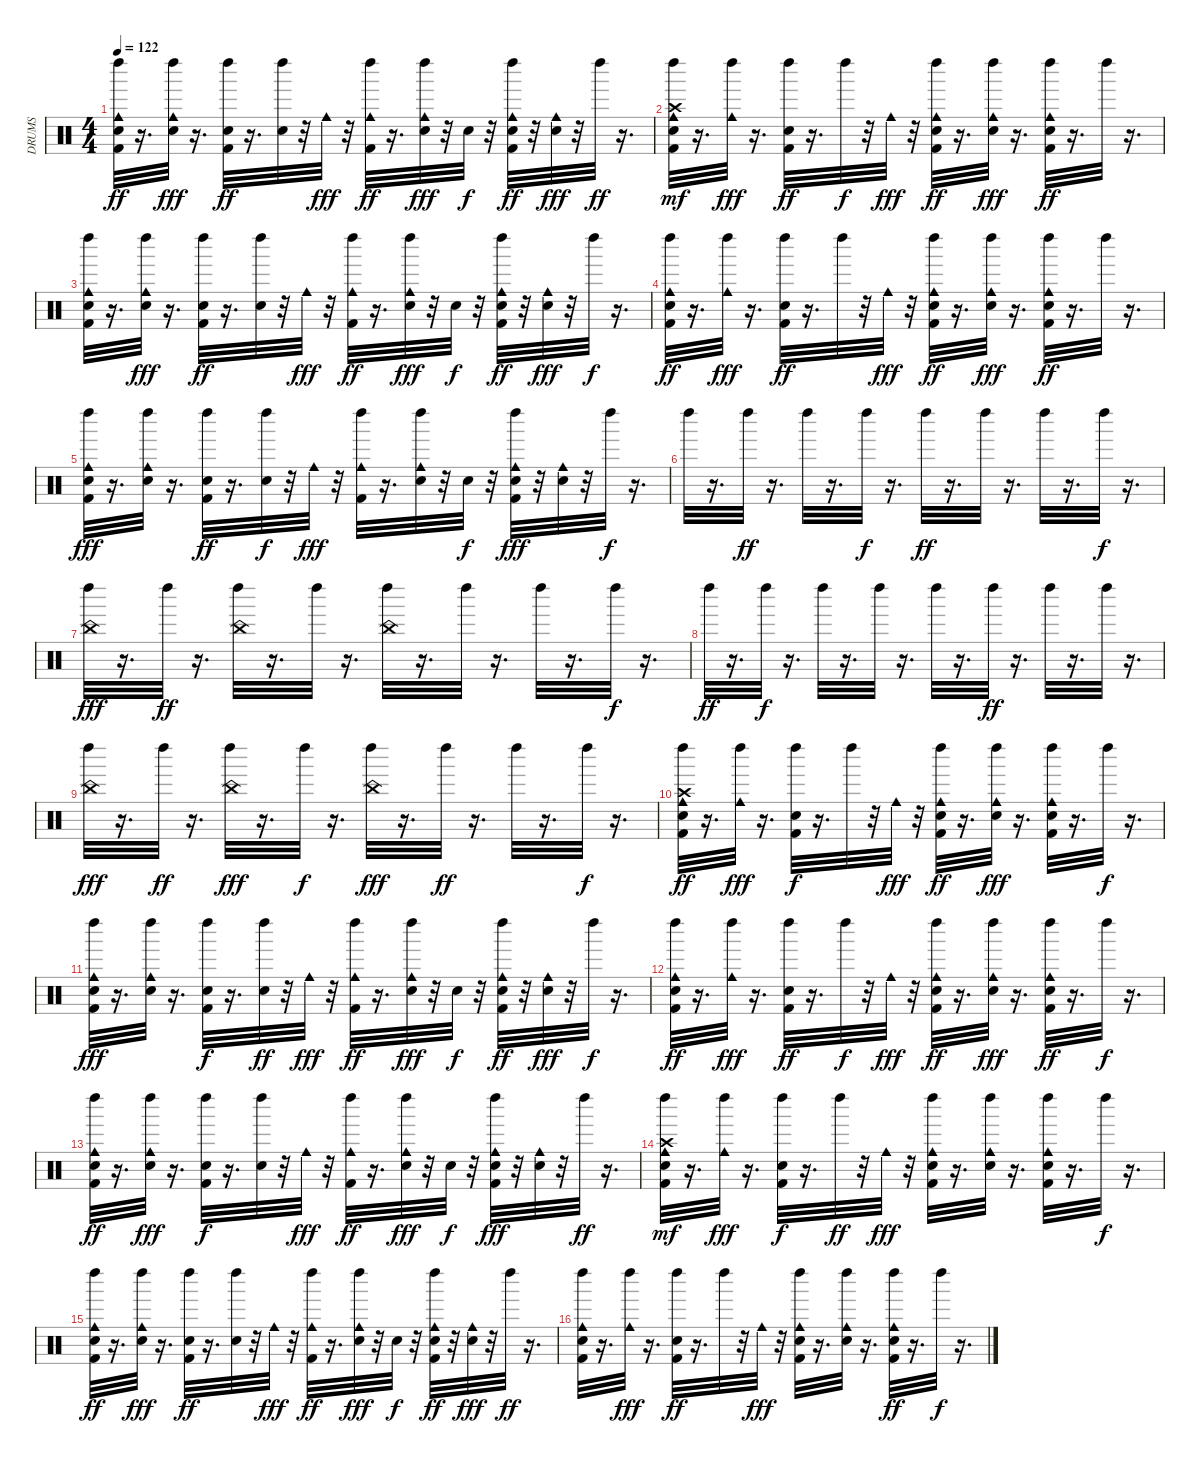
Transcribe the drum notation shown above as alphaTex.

\track ("DRUMS" "DRUMS") {instrument percussion}
\staff {score}
\articulation defaults
\ts (4 4)
\tempo 122
\clef neutral
\ks c
("Left Maraca (hit)" "Cowbell medium (hit)" "Hand Clap (hit)" "Kick (hit) 2").32{dy ff} r.16{d} ("Left Maraca (hit)" "Cowbell medium (hit)" "Hand Clap (hit)").32{dy fff} r.16{d} ("Left Maraca (hit)" "Hand Clap (hit)" "Kick (hit) 2").32{dy ff} r.16{d} ("Left Maraca (hit)" "Hand Clap (hit)").32 r.32 "Cowbell medium (hit)".32{dy fff} r.32 ("Left Maraca (hit)" "Cowbell medium (hit)" "Kick (hit) 2").32{dy ff} r.16{d} ("Left Maraca (hit)" "Cowbell medium (hit)" "Hand Clap (hit)").32{dy fff} r.32 "Hand Clap (hit)".32{dy f} r.32 ("Left Maraca (hit)" "Cowbell medium (hit)" "Hand Clap (hit)" "Kick (hit) 2").32{dy ff} r.32 ("Cowbell medium (hit)" "Hand Clap (hit)").32{dy fff} r.32 "Left Maraca (hit)".32{dy ff} r.16{d} |
("Left Maraca (hit)" "Cowbell medium (hit)" "Crash high (hit)" "Hand Clap (hit)" "Kick (hit) 2").32{dy mf} r.16{d} ("Left Maraca (hit)" "Cowbell medium (hit)").32{dy fff} r.16{d} ("Left Maraca (hit)" "Hand Clap (hit)" "Kick (hit) 2").32{dy ff} r.16{d} "Left Maraca (hit)".32{dy f} r.32 "Cowbell medium (hit)".32{dy fff} r.32 ("Left Maraca (hit)" "Cowbell medium (hit)" "Hand Clap (hit)" "Kick (hit) 2").32{dy ff} r.16{d} ("Left Maraca (hit)" "Cowbell medium (hit)" "Hand Clap (hit)").32{dy fff} r.16{d} ("Left Maraca (hit)" "Cowbell medium (hit)" "Hand Clap (hit)" "Kick (hit) 2").32{dy ff} r.16{d} "Left Maraca (hit)".32 r.16{d} |
("Left Maraca (hit)" "Cowbell medium (hit)" "Hand Clap (hit)" "Kick (hit) 2").32 r.16{d} ("Left Maraca (hit)" "Cowbell medium (hit)" "Hand Clap (hit)").32{dy fff} r.16{d} ("Left Maraca (hit)" "Hand Clap (hit)" "Kick (hit) 2").32{dy ff} r.16{d} ("Left Maraca (hit)" "Hand Clap (hit)").32 r.32 "Cowbell medium (hit)".32{dy fff} r.32 ("Left Maraca (hit)" "Cowbell medium (hit)" "Kick (hit) 2").32{dy ff} r.16{d} ("Left Maraca (hit)" "Cowbell medium (hit)" "Hand Clap (hit)").32{dy fff} r.32 "Hand Clap (hit)".32{dy f} r.32 ("Left Maraca (hit)" "Cowbell medium (hit)" "Hand Clap (hit)" "Kick (hit) 2").32{dy ff} r.32 ("Cowbell medium (hit)" "Hand Clap (hit)").32{dy fff} r.32 "Left Maraca (hit)".32{dy f} r.16{d} |
("Left Maraca (hit)" "Cowbell medium (hit)" "Hand Clap (hit)" "Kick (hit) 2").32{dy ff} r.16{d} ("Left Maraca (hit)" "Cowbell medium (hit)").32{dy fff} r.16{d} ("Left Maraca (hit)" "Hand Clap (hit)" "Kick (hit) 2").32{dy ff} r.16{d} "Left Maraca (hit)".32 r.32 "Cowbell medium (hit)".32{dy fff} r.32 ("Left Maraca (hit)" "Cowbell medium (hit)" "Hand Clap (hit)" "Kick (hit) 2").32{dy ff} r.16{d} ("Left Maraca (hit)" "Cowbell medium (hit)" "Hand Clap (hit)").32{dy fff} r.16{d} ("Left Maraca (hit)" "Cowbell medium (hit)" "Hand Clap (hit)" "Kick (hit) 2").32{dy ff} r.16{d} "Left Maraca (hit)".32 r.16{d} |
("Left Maraca (hit)" "Cowbell medium (hit)" "Hand Clap (hit)" "Kick (hit) 2").32{dy fff} r.16{d} ("Left Maraca (hit)" "Cowbell medium (hit)" "Hand Clap (hit)").32 r.16{d} ("Left Maraca (hit)" "Hand Clap (hit)" "Kick (hit) 2").32{dy ff} r.16{d} ("Left Maraca (hit)" "Hand Clap (hit)").32{dy f} r.32 "Cowbell medium (hit)".32{dy fff} r.32 ("Left Maraca (hit)" "Cowbell medium (hit)" "Kick (hit) 2").32 r.16{d} ("Left Maraca (hit)" "Cowbell medium (hit)" "Hand Clap (hit)").32 r.32 "Hand Clap (hit)".32{dy f} r.32 ("Left Maraca (hit)" "Cowbell medium (hit)" "Hand Clap (hit)" "Kick (hit) 2").32{dy fff} r.32 ("Cowbell medium (hit)" "Hand Clap (hit)").32 r.32 "Left Maraca (hit)".32{dy f} r.16{d} |
"Left Maraca (hit)".32 r.16{d} "Left Maraca (hit)".32{dy ff} r.16{d} "Left Maraca (hit)".32 r.16{d} "Left Maraca (hit)".32{dy f} r.16{d} "Left Maraca (hit)".32{dy ff} r.16{d} "Left Maraca (hit)".32 r.16{d} "Left Maraca (hit)".32 r.16{d} "Left Maraca (hit)".32{dy f} r.16{d} |
("Left Maraca (hit)" "China (hit)").32{dy fff} r.16{d} "Left Maraca (hit)".32{dy ff} r.16{d} ("Left Maraca (hit)" "China (hit)").32 r.16{d} "Left Maraca (hit)".32 r.16{d} ("Left Maraca (hit)" "China (hit)").32 r.16{d} "Left Maraca (hit)".32 r.16{d} "Left Maraca (hit)".32 r.16{d} "Left Maraca (hit)".32{dy f} r.16{d} |
"Left Maraca (hit)".32{dy ff} r.16{d} "Left Maraca (hit)".32{dy f} r.16{d} "Left Maraca (hit)".32 r.16{d} "Left Maraca (hit)".32 r.16{d} "Left Maraca (hit)".32 r.16{d} "Left Maraca (hit)".32{dy ff} r.16{d} "Left Maraca (hit)".32 r.16{d} "Left Maraca (hit)".32 r.16{d} |
("Left Maraca (hit)" "China (hit)").32{dy fff} r.16{d} "Left Maraca (hit)".32{dy ff} r.16{d} ("Left Maraca (hit)" "China (hit)").32{dy fff} r.16{d} "Left Maraca (hit)".32{dy f} r.16{d} ("Left Maraca (hit)" "China (hit)").32{dy fff} r.16{d} "Left Maraca (hit)".32{dy ff} r.16{d} "Left Maraca (hit)".32 r.16{d} "Left Maraca (hit)".32{dy f} r.16{d} |
("Left Maraca (hit)" "Cowbell medium (hit)" "Crash high (hit)" "Hand Clap (hit)" "Kick (hit) 2").32{dy ff} r.16{d} ("Left Maraca (hit)" "Cowbell medium (hit)").32{dy fff} r.16{d} ("Left Maraca (hit)" "Hand Clap (hit)" "Kick (hit) 2").32{dy f} r.16{d} "Left Maraca (hit)".32 r.32 "Cowbell medium (hit)".32{dy fff} r.32 ("Left Maraca (hit)" "Cowbell medium (hit)" "Hand Clap (hit)" "Kick (hit) 2").32{dy ff} r.16{d} ("Left Maraca (hit)" "Cowbell medium (hit)" "Hand Clap (hit)").32{dy fff} r.16{d} ("Left Maraca (hit)" "Cowbell medium (hit)" "Hand Clap (hit)" "Kick (hit) 2").32 r.16{d} "Left Maraca (hit)".32{dy f} r.16{d} |
("Left Maraca (hit)" "Cowbell medium (hit)" "Hand Clap (hit)" "Kick (hit) 2").32{dy fff} r.16{d} ("Left Maraca (hit)" "Cowbell medium (hit)" "Hand Clap (hit)").32 r.16{d} ("Left Maraca (hit)" "Hand Clap (hit)" "Kick (hit) 2").32{dy f} r.16{d} ("Left Maraca (hit)" "Hand Clap (hit)").32{dy ff} r.32 "Cowbell medium (hit)".32{dy fff} r.32 ("Left Maraca (hit)" "Cowbell medium (hit)" "Kick (hit) 2").32{dy ff} r.16{d} ("Left Maraca (hit)" "Cowbell medium (hit)" "Hand Clap (hit)").32{dy fff} r.32 "Hand Clap (hit)".32{dy f} r.32 ("Left Maraca (hit)" "Cowbell medium (hit)" "Hand Clap (hit)" "Kick (hit) 2").32{dy ff} r.32 ("Cowbell medium (hit)" "Hand Clap (hit)").32{dy fff} r.32 "Left Maraca (hit)".32{dy f} r.16{d} |
("Left Maraca (hit)" "Cowbell medium (hit)" "Hand Clap (hit)" "Kick (hit) 2").32{dy ff} r.16{d} ("Left Maraca (hit)" "Cowbell medium (hit)").32{dy fff} r.16{d} ("Left Maraca (hit)" "Hand Clap (hit)" "Kick (hit) 2").32{dy ff} r.16{d} "Left Maraca (hit)".32{dy f} r.32 "Cowbell medium (hit)".32{dy fff} r.32 ("Left Maraca (hit)" "Cowbell medium (hit)" "Hand Clap (hit)" "Kick (hit) 2").32{dy ff} r.16{d} ("Left Maraca (hit)" "Cowbell medium (hit)" "Hand Clap (hit)").32{dy fff} r.16{d} ("Left Maraca (hit)" "Cowbell medium (hit)" "Hand Clap (hit)" "Kick (hit) 2").32{dy ff} r.16{d} "Left Maraca (hit)".32{dy f} r.16{d} |
("Left Maraca (hit)" "Cowbell medium (hit)" "Hand Clap (hit)" "Kick (hit) 2").32{dy ff} r.16{d} ("Left Maraca (hit)" "Cowbell medium (hit)" "Hand Clap (hit)").32{dy fff} r.16{d} ("Left Maraca (hit)" "Hand Clap (hit)" "Kick (hit) 2").32{dy f} r.16{d} ("Left Maraca (hit)" "Hand Clap (hit)").32 r.32 "Cowbell medium (hit)".32{dy fff} r.32 ("Left Maraca (hit)" "Cowbell medium (hit)" "Kick (hit) 2").32{dy ff} r.16{d} ("Left Maraca (hit)" "Cowbell medium (hit)" "Hand Clap (hit)").32{dy fff} r.32 "Hand Clap (hit)".32{dy f} r.32 ("Left Maraca (hit)" "Cowbell medium (hit)" "Hand Clap (hit)" "Kick (hit) 2").32{dy fff} r.32 ("Cowbell medium (hit)" "Hand Clap (hit)").32 r.32 "Left Maraca (hit)".32{dy ff} r.16{d} |
("Left Maraca (hit)" "Cowbell medium (hit)" "Crash high (hit)" "Hand Clap (hit)" "Kick (hit) 2").32{dy mf} r.16{d} ("Left Maraca (hit)" "Cowbell medium (hit)").32{dy fff} r.16{d} ("Left Maraca (hit)" "Hand Clap (hit)" "Kick (hit) 2").32{dy f} r.16{d} "Left Maraca (hit)".32{dy ff} r.32 "Cowbell medium (hit)".32{dy fff} r.32 ("Left Maraca (hit)" "Cowbell medium (hit)" "Hand Clap (hit)" "Kick (hit) 2").32 r.16{d} ("Left Maraca (hit)" "Cowbell medium (hit)" "Hand Clap (hit)").32 r.16{d} ("Left Maraca (hit)" "Cowbell medium (hit)" "Hand Clap (hit)" "Kick (hit) 2").32 r.16{d} "Left Maraca (hit)".32{dy f} r.16{d} |
("Left Maraca (hit)" "Cowbell medium (hit)" "Hand Clap (hit)" "Kick (hit) 2").32{dy ff} r.16{d} ("Left Maraca (hit)" "Cowbell medium (hit)" "Hand Clap (hit)").32{dy fff} r.16{d} ("Left Maraca (hit)" "Hand Clap (hit)" "Kick (hit) 2").32{dy ff} r.16{d} ("Left Maraca (hit)" "Hand Clap (hit)").32 r.32 "Cowbell medium (hit)".32{dy fff} r.32 ("Left Maraca (hit)" "Cowbell medium (hit)" "Kick (hit) 2").32{dy ff} r.16{d} ("Left Maraca (hit)" "Cowbell medium (hit)" "Hand Clap (hit)").32{dy fff} r.32 "Hand Clap (hit)".32{dy f} r.32 ("Left Maraca (hit)" "Cowbell medium (hit)" "Hand Clap (hit)" "Kick (hit) 2").32{dy ff} r.32 ("Cowbell medium (hit)" "Hand Clap (hit)").32{dy fff} r.32 "Left Maraca (hit)".32{dy ff} r.16{d} |
("Left Maraca (hit)" "Cowbell medium (hit)" "Hand Clap (hit)" "Kick (hit) 2").32 r.16{d} ("Left Maraca (hit)" "Cowbell medium (hit)").32{dy fff} r.16{d} ("Left Maraca (hit)" "Hand Clap (hit)" "Kick (hit) 2").32{dy ff} r.16{d} "Left Maraca (hit)".32 r.32 "Cowbell medium (hit)".32{dy fff} r.32 ("Left Maraca (hit)" "Cowbell medium (hit)" "Hand Clap (hit)" "Kick (hit) 2").32 r.16{d} ("Left Maraca (hit)" "Cowbell medium (hit)" "Hand Clap (hit)").32 r.16{d} ("Left Maraca (hit)" "Cowbell medium (hit)" "Hand Clap (hit)" "Kick (hit) 2").32{dy ff} r.16{d} "Left Maraca (hit)".32{dy f} r.16{d}
